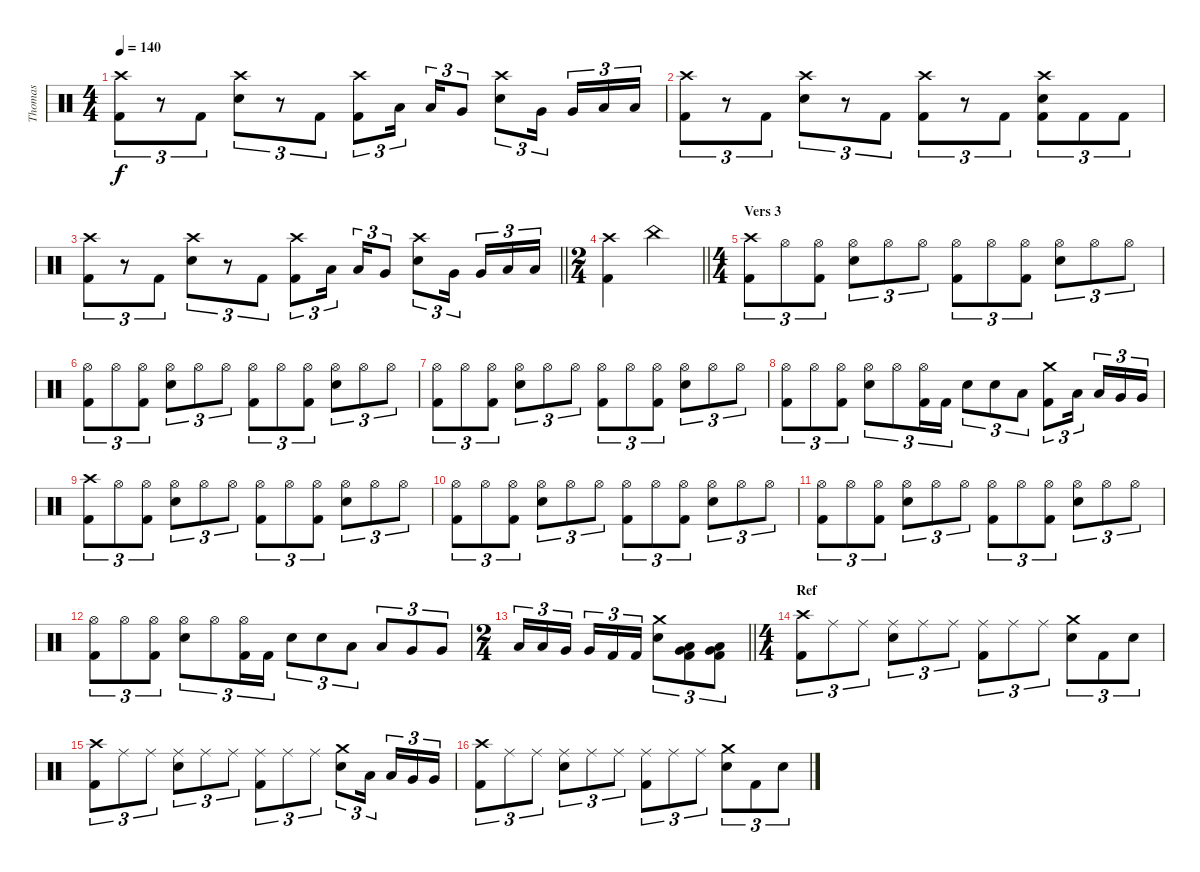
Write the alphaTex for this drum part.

\track ("Thomas" "Thomas") {instrument percussion}
\staff {score}
\articulation defaults
\ts (4 4)
\tempo 140
\clef neutral
\ks c
("Crash high (hit)" "Kick (hit) 2").8{tu (3 2) dy f} r.8{tu (3 2)} "Kick (hit) 2".8{tu (3 2)} ("Crash high (hit)" "Snare (hit) 2").8{tu (3 2)} r.8{tu (3 2)} "Kick (hit) 2".8{tu (3 2)} ("Crash high (hit)" "Kick (hit) 2").8{tu (3 2)} "Low Tom (hit)".16{tu (3 2) beam splitsecondary} "Low Tom (hit)".16{tu (3 2)} "Very Low Tom (hit)".8{tu (3 2)} ("Crash high (hit)" "Snare (hit) 2").8{tu (3 2)} "Very Low Tom (hit)".16{tu (3 2) beam splitsecondary} "Very Low Tom (hit)".16{tu (3 2)} "Low Floor Tom (hit)".16{tu (3 2)} "Low Floor Tom (hit)".16{tu (3 2)} |
("Crash high (hit)" "Kick (hit) 2").8{tu (3 2)} r.8{tu (3 2)} "Kick (hit) 2".8{tu (3 2)} ("Crash high (hit)" "Snare (hit) 2").8{tu (3 2)} r.8{tu (3 2)} "Kick (hit) 2".8{tu (3 2)} ("Crash high (hit)" "Kick (hit) 2").8{tu (3 2)} r.8{tu (3 2)} "Kick (hit) 2".8{tu (3 2)} ("Crash high (hit)" "Snare (hit) 2" "Kick (hit) 2").8{tu (3 2)} "Kick (hit) 2".8{tu (3 2)} "Kick (hit) 2".8{tu (3 2)} |
\barLineRight lightlight
("Crash high (hit)" "Kick (hit) 2").8{tu (3 2)} r.8{tu (3 2)} "Kick (hit) 2".8{tu (3 2)} ("Crash high (hit)" "Snare (hit) 2").8{tu (3 2)} r.8{tu (3 2)} "Kick (hit) 2".8{tu (3 2)} ("Crash high (hit)" "Kick (hit) 2").8{tu (3 2)} "Low Tom (hit)".16{tu (3 2) beam splitsecondary} "Low Tom (hit)".16{tu (3 2)} "Very Low Tom (hit)".8{tu (3 2)} ("Crash high (hit)" "Snare (hit) 2").8{tu (3 2)} "Very Low Tom (hit)".16{tu (3 2) beam splitsecondary} "Very Low Tom (hit)".16{tu (3 2)} "Low Floor Tom (hit)".16{tu (3 2)} "Low Floor Tom (hit)".16{tu (3 2)} |
\ts (2 4)
\barLineRight lightlight
("Crash high (hit)" "Kick (hit) 2").4 "China (hit)".4 |
\ts (4 4)
\section ("" "Vers 3")
("Crash high (hit)" "Kick (hit) 2").8{tu (3 2)} "Hi-Hat (open)".8{tu (3 2)} ("Hi-Hat (open)" "Kick (hit) 2").8{tu (3 2)} ("Hi-Hat (open)" "Snare (hit) 2").8{tu (3 2)} "Hi-Hat (open)".8{tu (3 2)} "Hi-Hat (open)".8{tu (3 2)} ("Hi-Hat (open)" "Kick (hit) 2").8{tu (3 2)} "Hi-Hat (open)".8{tu (3 2)} ("Hi-Hat (open)" "Kick (hit) 2").8{tu (3 2)} ("Hi-Hat (open)" "Snare (hit) 2").8{tu (3 2)} "Hi-Hat (open)".8{tu (3 2)} "Hi-Hat (open)".8{tu (3 2)} |
("Hi-Hat (open)" "Kick (hit) 2").8{tu (3 2)} "Hi-Hat (open)".8{tu (3 2)} ("Hi-Hat (open)" "Kick (hit) 2").8{tu (3 2)} ("Hi-Hat (open)" "Snare (hit) 2").8{tu (3 2)} "Hi-Hat (open)".8{tu (3 2)} "Hi-Hat (open)".8{tu (3 2)} ("Hi-Hat (open)" "Kick (hit) 2").8{tu (3 2)} "Hi-Hat (open)".8{tu (3 2)} ("Hi-Hat (open)" "Kick (hit) 2").8{tu (3 2)} ("Hi-Hat (open)" "Snare (hit) 2").8{tu (3 2)} "Hi-Hat (open)".8{tu (3 2)} "Hi-Hat (open)".8{tu (3 2)} |
("Hi-Hat (open)" "Kick (hit) 2").8{tu (3 2)} "Hi-Hat (open)".8{tu (3 2)} ("Hi-Hat (open)" "Kick (hit) 2").8{tu (3 2)} ("Hi-Hat (open)" "Snare (hit) 2").8{tu (3 2)} "Hi-Hat (open)".8{tu (3 2)} "Hi-Hat (open)".8{tu (3 2)} ("Hi-Hat (open)" "Kick (hit) 2").8{tu (3 2)} "Hi-Hat (open)".8{tu (3 2)} ("Hi-Hat (open)" "Kick (hit) 2").8{tu (3 2)} ("Hi-Hat (open)" "Snare (hit) 2").8{tu (3 2)} "Hi-Hat (open)".8{tu (3 2)} "Hi-Hat (open)".8{tu (3 2)} |
("Hi-Hat (open)" "Kick (hit) 2").8{tu (3 2)} "Hi-Hat (open)".8{tu (3 2)} ("Hi-Hat (open)" "Kick (hit) 2").8{tu (3 2)} ("Hi-Hat (open)" "Snare (hit) 2").8{tu (3 2)} "Hi-Hat (open)".8{tu (3 2)} ("Hi-Hat (open)" "Kick (hit) 2").16{tu (3 2)} "Kick (hit) 2".16{tu (3 2)} "Snare (hit) 2".8{tu (3 2)} "Snare (hit) 2".8{tu (3 2)} "Low Tom (hit)".8{tu (3 2)} ("Crash medium (hit)" "Kick (hit) 2").8{tu (3 2)} "Low Tom (hit)".16{tu (3 2) beam splitsecondary} "Low Tom (hit)".16{tu (3 2)} "Very Low Tom (hit)".16{tu (3 2)} "Very Low Tom (hit)".16{tu (3 2)} |
("Crash high (hit)" "Kick (hit) 2").8{tu (3 2)} "Hi-Hat (open)".8{tu (3 2)} ("Hi-Hat (open)" "Kick (hit) 2").8{tu (3 2)} ("Hi-Hat (open)" "Snare (hit) 2").8{tu (3 2)} "Hi-Hat (open)".8{tu (3 2)} "Hi-Hat (open)".8{tu (3 2)} ("Hi-Hat (open)" "Kick (hit) 2").8{tu (3 2)} "Hi-Hat (open)".8{tu (3 2)} ("Hi-Hat (open)" "Kick (hit) 2").8{tu (3 2)} ("Hi-Hat (open)" "Snare (hit) 2").8{tu (3 2)} "Hi-Hat (open)".8{tu (3 2)} "Hi-Hat (open)".8{tu (3 2)} |
("Hi-Hat (open)" "Kick (hit) 2").8{tu (3 2)} "Hi-Hat (open)".8{tu (3 2)} ("Hi-Hat (open)" "Kick (hit) 2").8{tu (3 2)} ("Hi-Hat (open)" "Snare (hit) 2").8{tu (3 2)} "Hi-Hat (open)".8{tu (3 2)} "Hi-Hat (open)".8{tu (3 2)} ("Hi-Hat (open)" "Kick (hit) 2").8{tu (3 2)} "Hi-Hat (open)".8{tu (3 2)} ("Hi-Hat (open)" "Kick (hit) 2").8{tu (3 2)} ("Hi-Hat (open)" "Snare (hit) 2").8{tu (3 2)} "Hi-Hat (open)".8{tu (3 2)} "Hi-Hat (open)".8{tu (3 2)} |
("Hi-Hat (open)" "Kick (hit) 2").8{tu (3 2)} "Hi-Hat (open)".8{tu (3 2)} ("Hi-Hat (open)" "Kick (hit) 2").8{tu (3 2)} ("Hi-Hat (open)" "Snare (hit) 2").8{tu (3 2)} "Hi-Hat (open)".8{tu (3 2)} "Hi-Hat (open)".8{tu (3 2)} ("Hi-Hat (open)" "Kick (hit) 2").8{tu (3 2)} "Hi-Hat (open)".8{tu (3 2)} ("Hi-Hat (open)" "Kick (hit) 2").8{tu (3 2)} ("Hi-Hat (open)" "Snare (hit) 2").8{tu (3 2)} "Hi-Hat (open)".8{tu (3 2)} "Hi-Hat (open)".8{tu (3 2)} |
("Hi-Hat (open)" "Kick (hit) 2").8{tu (3 2)} "Hi-Hat (open)".8{tu (3 2)} ("Hi-Hat (open)" "Kick (hit) 2").8{tu (3 2)} ("Hi-Hat (open)" "Snare (hit) 2").8{tu (3 2)} "Hi-Hat (open)".8{tu (3 2)} ("Hi-Hat (open)" "Kick (hit) 2").16{tu (3 2)} "Kick (hit) 2".16{tu (3 2)} "Snare (hit) 2".8{tu (3 2)} "Snare (hit) 2".8{tu (3 2)} "Low Tom (hit)".8{tu (3 2)} "Low Tom (hit)".8{tu (3 2)} "Very Low Tom (hit)".8{tu (3 2)} "Very Low Tom (hit)".8{tu (3 2)} |
\ts (2 4)
\barLineRight lightlight "Low Tom (hit)".16{tu (3 2)} "Low Tom (hit)".16{tu (3 2)} "Very Low Tom (hit)".16{tu (3 2) beam splitsecondary} "Very Low Tom (hit)".16{tu (3 2)} "Kick (hit) 2".16{tu (3 2)} "Kick (hit) 2".16{tu (3 2)}
("Crash medium (hit)" "Snare (hit) 2").8{tu (3 2)} ("Very Low Tom (hit)" "Low Floor Tom (hit)" "Kick (hit) 2").8{tu (3 2)} ("Very Low Tom (hit)" "Low Floor Tom (hit)" "Kick (hit) 2").8{tu (3 2)} |
\ts (4 4)
\section ("" "Ref")
("Crash high (hit)" "Kick (hit) 2").8{tu (3 2)} "Ride (middle)".8{tu (3 2)} "Ride (middle)".8{tu (3 2)} ("Ride (middle)" "Snare (hit) 2").8{tu (3 2)} "Ride (middle)".8{tu (3 2)} "Ride (middle)".8{tu (3 2)} ("Ride (middle)" "Kick (hit) 2").8{tu (3 2)} "Ride (middle)".8{tu (3 2)} "Ride (middle)".8{tu (3 2)} ("Crash medium (hit)" "Snare (hit) 2").8{tu (3 2)} "Kick (hit) 2".8{tu (3 2)} "Snare (hit) 2".8{tu (3 2)} |
("Crash high (hit)" "Kick (hit) 2").8{tu (3 2)} "Ride (middle)".8{tu (3 2)} "Ride (middle)".8{tu (3 2)} ("Ride (middle)" "Snare (hit) 2").8{tu (3 2)} "Ride (middle)".8{tu (3 2)} "Ride (middle)".8{tu (3 2)} ("Ride (middle)" "Kick (hit) 2").8{tu (3 2)} "Ride (middle)".8{tu (3 2)} "Ride (middle)".8{tu (3 2)} ("Crash medium (hit)" "Snare (hit) 2").8{tu (3 2)} "Low Tom (hit)".16{tu (3 2) beam splitsecondary} "Low Tom (hit)".16{tu (3 2)} "Very Low Tom (hit)".16{tu (3 2)} "Very Low Tom (hit)".16{tu (3 2)} |
("Crash high (hit)" "Kick (hit) 2").8{tu (3 2)} "Ride (middle)".8{tu (3 2)} "Ride (middle)".8{tu (3 2)} ("Ride (middle)" "Snare (hit) 2").8{tu (3 2)} "Ride (middle)".8{tu (3 2)} "Ride (middle)".8{tu (3 2)} ("Ride (middle)" "Kick (hit) 2").8{tu (3 2)} "Ride (middle)".8{tu (3 2)} "Ride (middle)".8{tu (3 2)} ("Crash medium (hit)" "Snare (hit) 2").8{tu (3 2)} "Kick (hit) 2".8{tu (3 2)} "Snare (hit) 2".8{tu (3 2)}
